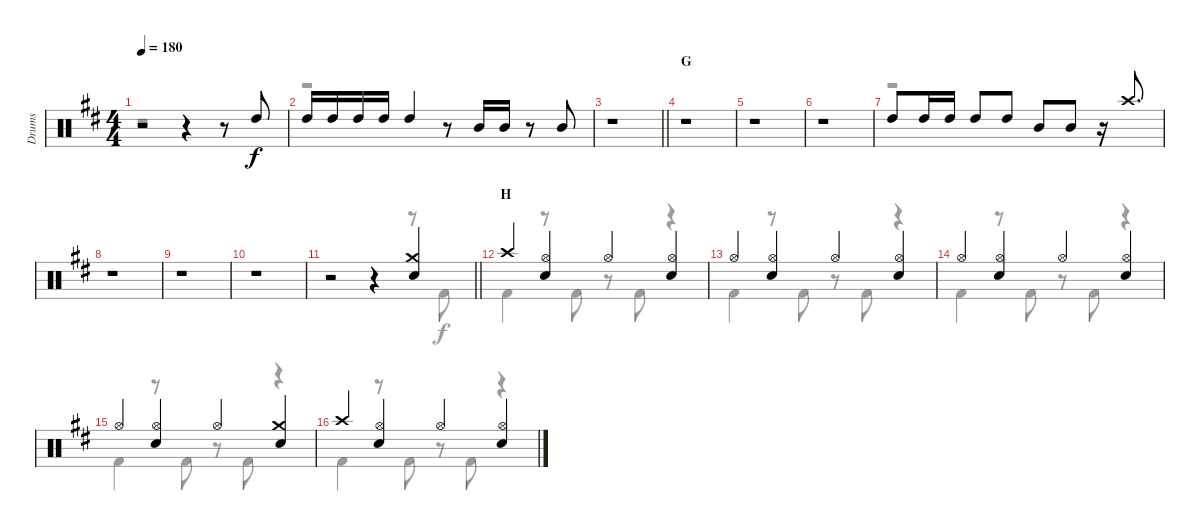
\track ("Drums" "Drums") {instrument percussion}
\staff {score}
\articulation defaults
\voice
\ts (4 4)
\tempo 180
\clef neutral
\ks d
r.2{dy f} r.4 r.8 "High Tom (hit)".8 |
"High Tom (hit)".16 "High Tom (hit)".16 "High Tom (hit)".16 "High Tom (hit)".16 "High Tom (hit)".4 r.8 "Mid Tom (hit)".16 "Mid Tom (hit)".16 r.8 "Mid Tom (hit)".8 |
\barLineRight lightlight
r.1 |
\section ("" "G")
r.1 |
r.1 |
r.1 |
"High Tom (hit)".8 "High Tom (hit)".16 "High Tom (hit)".16 "High Tom (hit)".8 "High Tom (hit)".8 "Mid Tom (hit)".8 "Mid Tom (hit)".8 r.16 "Crash high (hit)".8{d} |
r.1 |
r.1 |
r.1 |
\barLineRight lightlight
r.2 r.4 ("Crash medium (hit)" "Snare (hit) 2").4 |
\section ("" "H")
"Crash high (hit)".4 ("Hi-Hat (open)" "Snare (hit) 2").4 "Hi-Hat (open)".4 ("Hi-Hat (open)" "Snare (hit) 2").4 |
"Hi-Hat (open)".4 ("Hi-Hat (open)" "Snare (hit) 2").4 "Hi-Hat (open)".4 ("Hi-Hat (open)" "Snare (hit) 2").4 |
"Hi-Hat (open)".4 ("Hi-Hat (open)" "Snare (hit) 2").4 "Hi-Hat (open)".4 ("Hi-Hat (open)" "Snare (hit) 2").4 |
"Hi-Hat (open)".4 ("Hi-Hat (open)" "Snare (hit) 2").4 "Hi-Hat (open)".4 ("Crash medium (hit)" "Snare (hit) 2").4 |
"Crash high (hit)".4 ("Hi-Hat (open)" "Snare (hit) 2").4 "Hi-Hat (open)".4 ("Hi-Hat (open)" "Snare (hit) 2").4
\voice
\clef neutral
\ottava regular
\simile none
\ks d
r.1{dy f} |
r.1 |
\barLineRight lightlight
r.1 |
r.1 |
r.1 |
r.1 |
r.1 |
r.1 |
r.1 |
r.1 |
\barLineRight lightlight
r.2 r.4 r.8 "Kick (hit) 2".8 |
"Kick (hit) 2".4 r.8 "Kick (hit) 2".8 r.8 "Kick (hit) 2".8 r.4 |
"Kick (hit) 2".4 r.8 "Kick (hit) 2".8 r.8 "Kick (hit) 2".8 r.4 |
"Kick (hit) 2".4 r.8 "Kick (hit) 2".8 r.8 "Kick (hit) 2".8 r.4 |
"Kick (hit) 2".4 r.8 "Kick (hit) 2".8 r.8 "Kick (hit) 2".8 r.4 |
"Kick (hit) 2".4 r.8 "Kick (hit) 2".8 r.8 "Kick (hit) 2".8 r.4
